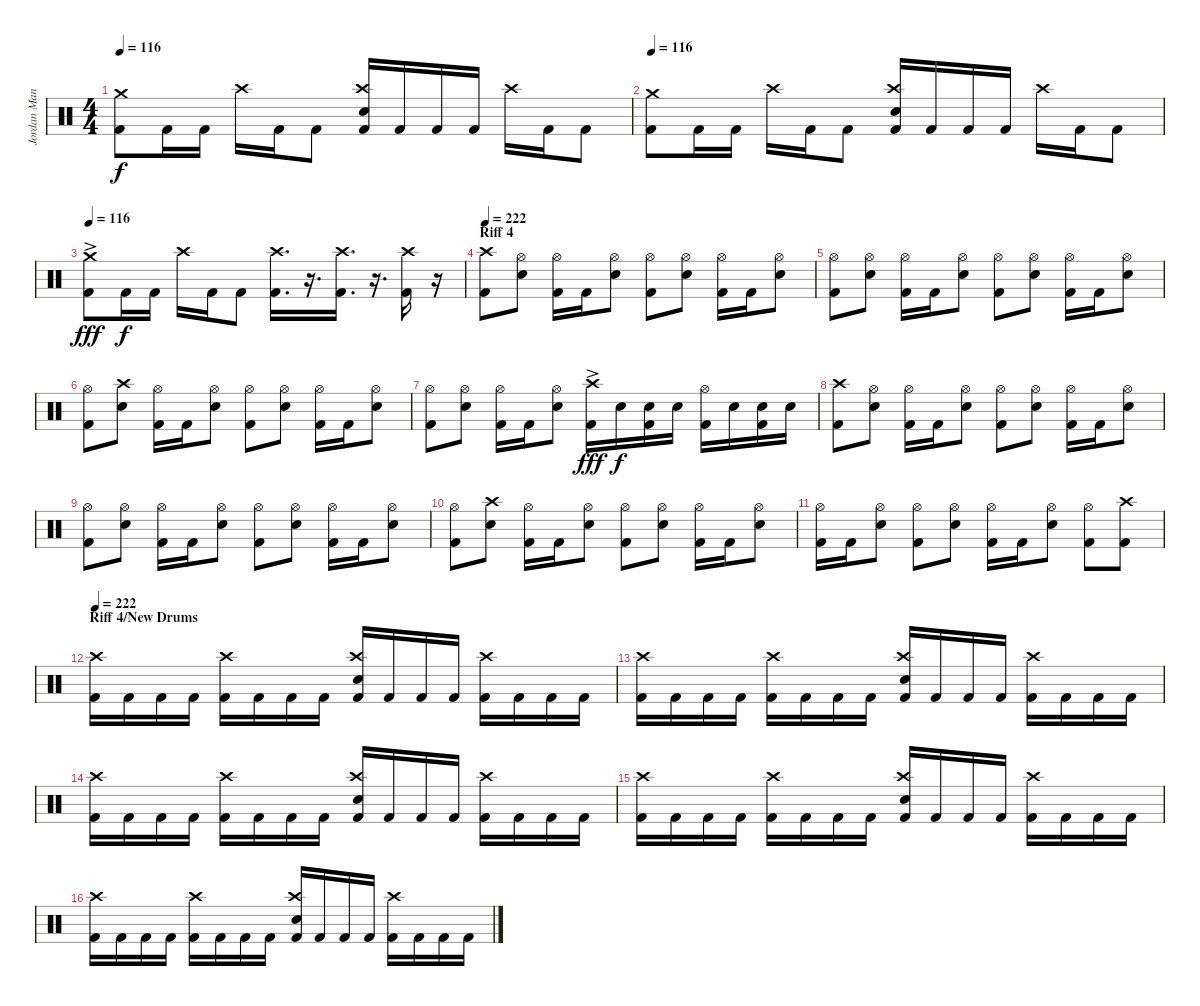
\track ("Jordan Mancino (Drums)" "Jordan Man") {instrument percussion}
\staff {score}
\articulation defaults
\ts (4 4)
\tempo 116
\clef neutral
\ks c
("Crash medium (hit)" "Kick (hit) 2").8{dy f} "Kick (hit) 2".16 "Kick (hit) 2".16 "Crash high (hit)".16 "Kick (hit) 2".16 "Kick (hit) 2".8 ("Crash high (hit)" "Snare (hit) 2" "Kick (hit) 2").16 "Kick (hit) 2".16 "Kick (hit) 2".16 "Kick (hit) 2".16 "Crash high (hit)".16 "Kick (hit) 2".16 "Kick (hit) 2".8 |
\tempo 116
("Crash medium (hit)" "Kick (hit) 2").8 "Kick (hit) 2".16 "Kick (hit) 2".16 "Crash high (hit)".16 "Kick (hit) 2".16 "Kick (hit) 2".8 ("Crash high (hit)" "Snare (hit) 2" "Kick (hit) 2").16 "Kick (hit) 2".16 "Kick (hit) 2".16 "Kick (hit) 2".16 "Crash high (hit)".16 "Kick (hit) 2".16 "Kick (hit) 2".8 |
\tempo 116
("Crash medium (hit)"{ac} "Kick (hit) 2").8{dy fff} "Kick (hit) 2".16{dy f} "Kick (hit) 2".16 "Crash high (hit)".16 "Kick (hit) 2".16 "Kick (hit) 2".8 ("Crash high (hit)" "Kick (hit) 2").16{d} r.16{d volume 0} ("Crash high (hit)" "Kick (hit) 2").16{d volume 16} r.16{d volume 0} ("Crash high (hit)" "Kick (hit) 2").16{volume 16} r.16{volume 0} |
\section ("" "Riff 4")
\tempo 222
("Crash high (hit)" "Kick (hit) 2").8{volume 16} ("Hi-Hat (open)" "Snare (hit) 2").8 ("Hi-Hat (open)" "Kick (hit) 2").16 "Kick (hit) 2".16 ("Hi-Hat (open)" "Snare (hit) 2").8 ("Hi-Hat (open)" "Kick (hit) 2").8 ("Hi-Hat (open)" "Snare (hit) 2").8 ("Hi-Hat (open)" "Kick (hit) 2").16 "Kick (hit) 2".16 ("Hi-Hat (open)" "Snare (hit) 2").8 |
("Hi-Hat (open)" "Kick (hit) 2").8 ("Hi-Hat (open)" "Snare (hit) 2").8 ("Hi-Hat (open)" "Kick (hit) 2").16 "Kick (hit) 2".16 ("Hi-Hat (open)" "Snare (hit) 2").8 ("Hi-Hat (open)" "Kick (hit) 2").8 ("Hi-Hat (open)" "Snare (hit) 2").8 ("Hi-Hat (open)" "Kick (hit) 2").16 "Kick (hit) 2".16 ("Hi-Hat (open)" "Snare (hit) 2").8 |
("Hi-Hat (open)" "Kick (hit) 2").8{volume 16} ("Crash high (hit)" "Snare (hit) 2").8 ("Hi-Hat (open)" "Kick (hit) 2").16 "Kick (hit) 2".16 ("Hi-Hat (open)" "Snare (hit) 2").8 ("Hi-Hat (open)" "Kick (hit) 2").8 ("Hi-Hat (open)" "Snare (hit) 2").8 ("Hi-Hat (open)" "Kick (hit) 2").16 "Kick (hit) 2".16 ("Hi-Hat (open)" "Snare (hit) 2").8 |
("Hi-Hat (open)" "Kick (hit) 2").8 ("Hi-Hat (open)" "Snare (hit) 2").8 ("Hi-Hat (open)" "Kick (hit) 2").16 "Kick (hit) 2".16 ("Hi-Hat (open)" "Snare (hit) 2").8 ("Crash high (hit)" "Kick (hit) 2"{ac}).16{dy fff} "Snare (hit) 2".16{dy f} ("Kick (hit) 2" "Snare (hit) 2").16 "Snare (hit) 2".16 ("Hi-Hat (open)" "Kick (hit) 2").16 "Snare (hit) 2".16 ("Kick (hit) 2" "Snare (hit) 2").16 "Snare (hit) 2".16 |
("Crash high (hit)" "Kick (hit) 2").8{volume 16} ("Hi-Hat (open)" "Snare (hit) 2").8 ("Hi-Hat (open)" "Kick (hit) 2").16 "Kick (hit) 2".16 ("Hi-Hat (open)" "Snare (hit) 2").8 ("Hi-Hat (open)" "Kick (hit) 2").8 ("Hi-Hat (open)" "Snare (hit) 2").8 ("Hi-Hat (open)" "Kick (hit) 2").16 "Kick (hit) 2".16 ("Hi-Hat (open)" "Snare (hit) 2").8 |
("Hi-Hat (open)" "Kick (hit) 2").8 ("Hi-Hat (open)" "Snare (hit) 2").8 ("Hi-Hat (open)" "Kick (hit) 2").16 "Kick (hit) 2".16 ("Hi-Hat (open)" "Snare (hit) 2").8 ("Hi-Hat (open)" "Kick (hit) 2").8 ("Hi-Hat (open)" "Snare (hit) 2").8 ("Hi-Hat (open)" "Kick (hit) 2").16 "Kick (hit) 2".16 ("Hi-Hat (open)" "Snare (hit) 2").8 |
("Hi-Hat (open)" "Kick (hit) 2").8{volume 16} ("Crash high (hit)" "Snare (hit) 2").8 ("Hi-Hat (open)" "Kick (hit) 2").16 "Kick (hit) 2".16 ("Hi-Hat (open)" "Snare (hit) 2").8 ("Hi-Hat (open)" "Kick (hit) 2").8 ("Hi-Hat (open)" "Snare (hit) 2").8 ("Hi-Hat (open)" "Kick (hit) 2").16 "Kick (hit) 2".16 ("Hi-Hat (open)" "Snare (hit) 2").8 |
("Hi-Hat (open)" "Kick (hit) 2").16 "Kick (hit) 2".16 ("Hi-Hat (open)" "Snare (hit) 2").8 ("Hi-Hat (open)" "Kick (hit) 2").8 ("Hi-Hat (open)" "Snare (hit) 2").8 ("Hi-Hat (open)" "Kick (hit) 2").16 "Kick (hit) 2".16 ("Hi-Hat (open)" "Snare (hit) 2").8 ("Hi-Hat (open)" "Kick (hit) 2").8 ("Crash high (hit)" "Kick (hit) 2").8 |
\section ("" "Riff 4/New Drums")
\tempo 222
("Crash high (hit)" "Kick (hit) 2").16 "Kick (hit) 2".16 "Kick (hit) 2".16 "Kick (hit) 2".16 ("Crash high (hit)" "Kick (hit) 2").16 "Kick (hit) 2".16 "Kick (hit) 2".16 "Kick (hit) 2".16 ("Snare (hit) 2" "Crash high (hit)" "Kick (hit) 2").16 "Kick (hit) 2".16 "Kick (hit) 2".16 "Kick (hit) 2".16 ("Crash high (hit)" "Kick (hit) 2").16 "Kick (hit) 2".16 "Kick (hit) 2".16 "Kick (hit) 2".16 |
("Crash high (hit)" "Kick (hit) 2").16 "Kick (hit) 2".16 "Kick (hit) 2".16 "Kick (hit) 2".16 ("Crash high (hit)" "Kick (hit) 2").16 "Kick (hit) 2".16 "Kick (hit) 2".16 "Kick (hit) 2".16 ("Snare (hit) 2" "Crash high (hit)" "Kick (hit) 2").16 "Kick (hit) 2".16 "Kick (hit) 2".16 "Kick (hit) 2".16 ("Crash high (hit)" "Kick (hit) 2").16 "Kick (hit) 2".16 "Kick (hit) 2".16 "Kick (hit) 2".16 |
("Crash high (hit)" "Kick (hit) 2").16 "Kick (hit) 2".16 "Kick (hit) 2".16 "Kick (hit) 2".16 ("Crash high (hit)" "Kick (hit) 2").16 "Kick (hit) 2".16 "Kick (hit) 2".16 "Kick (hit) 2".16 ("Snare (hit) 2" "Crash high (hit)" "Kick (hit) 2").16 "Kick (hit) 2".16 "Kick (hit) 2".16 "Kick (hit) 2".16 ("Crash high (hit)" "Kick (hit) 2").16 "Kick (hit) 2".16 "Kick (hit) 2".16 "Kick (hit) 2".16 |
("Crash high (hit)" "Kick (hit) 2").16 "Kick (hit) 2".16 "Kick (hit) 2".16 "Kick (hit) 2".16 ("Crash high (hit)" "Kick (hit) 2").16 "Kick (hit) 2".16 "Kick (hit) 2".16 "Kick (hit) 2".16 ("Snare (hit) 2" "Crash high (hit)" "Kick (hit) 2").16 "Kick (hit) 2".16 "Kick (hit) 2".16 "Kick (hit) 2".16 ("Crash high (hit)" "Kick (hit) 2").16 "Kick (hit) 2".16 "Kick (hit) 2".16 "Kick (hit) 2".16 |
("Crash high (hit)" "Kick (hit) 2").16 "Kick (hit) 2".16 "Kick (hit) 2".16 "Kick (hit) 2".16 ("Crash high (hit)" "Kick (hit) 2").16 "Kick (hit) 2".16 "Kick (hit) 2".16 "Kick (hit) 2".16 ("Snare (hit) 2" "Crash high (hit)" "Kick (hit) 2").16 "Kick (hit) 2".16 "Kick (hit) 2".16 "Kick (hit) 2".16 ("Crash high (hit)" "Kick (hit) 2").16 "Kick (hit) 2".16 "Kick (hit) 2".16 "Kick (hit) 2".16
